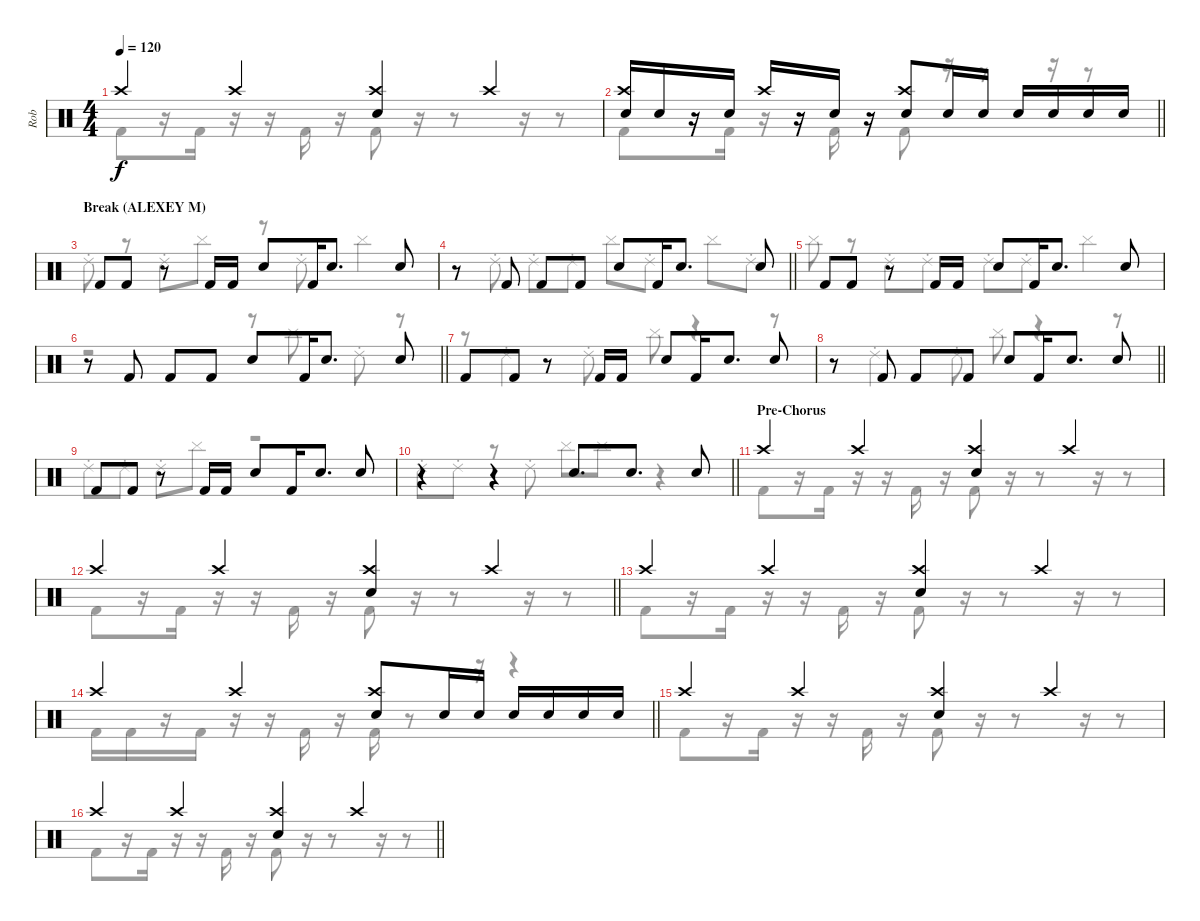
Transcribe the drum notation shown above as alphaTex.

\track ("Rob" "Rob") {instrument percussion}
\staff {score}
\articulation defaults
\voice
\ts (4 4)
\tempo 120
\clef neutral
\ks c "Crash high (hit)".4{dy f} "Crash high (hit)".4
("Crash high (hit)" "Snare (hit) 2").4 "Crash high (hit)".4 |
\barLineRight lightlight
("Crash high (hit)" "Snare (hit) 2").16 "Snare (hit) 2".16 r.16 "Snare (hit) 2".16 "Crash high (hit)".16 r.16 "Snare (hit) 2".16 r.16 ("Crash high (hit)" "Snare (hit) 2").8 "Snare (hit) 2".16 "Snare (hit) 2".16 "Snare (hit) 2".16 "Snare (hit) 2".16 "Snare (hit) 2".16 "Snare (hit) 2".16 |
\section ("" "Break (ALEXEY M)")
"Kick (hit) 2".8 "Kick (hit) 2".8 r.8 "Kick (hit) 2".16 "Kick (hit) 2".16 "Snare (hit) 2".8 "Kick (hit) 2".16 "Snare (hit) 2".8{d} "Snare (hit) 2".8 |
\barLineRight lightlight
r.8 "Kick (hit) 2".8 "Kick (hit) 2".8 "Kick (hit) 2".8 "Snare (hit) 2".8 "Kick (hit) 2".16 "Snare (hit) 2".8{d} "Snare (hit) 2".8 |
"Kick (hit) 2".8 "Kick (hit) 2".8 r.8 "Kick (hit) 2".16 "Kick (hit) 2".16 "Snare (hit) 2".8 "Kick (hit) 2".16 "Snare (hit) 2".8{d} "Snare (hit) 2".8 |
\barLineRight lightlight
r.8 "Kick (hit) 2".8 "Kick (hit) 2".8 "Kick (hit) 2".8 "Snare (hit) 2".8 "Kick (hit) 2".16 "Snare (hit) 2".8{d} "Snare (hit) 2".8 |
"Kick (hit) 2".8 "Kick (hit) 2".8 r.8 "Kick (hit) 2".16 "Kick (hit) 2".16 "Snare (hit) 2".8 "Kick (hit) 2".16 "Snare (hit) 2".8{d} "Snare (hit) 2".8 |
\barLineRight lightlight
r.8 "Kick (hit) 2".8 "Kick (hit) 2".8 "Kick (hit) 2".8 "Snare (hit) 2".8 "Kick (hit) 2".16 "Snare (hit) 2".8{d} "Snare (hit) 2".8 |
"Kick (hit) 2".8 "Kick (hit) 2".8 r.8 "Kick (hit) 2".16 "Kick (hit) 2".16 "Snare (hit) 2".8 "Kick (hit) 2".16 "Snare (hit) 2".8{d} "Snare (hit) 2".8 |
\barLineRight lightlight
r.4 r.4 "Snare (hit) 2".8{d} "Snare (hit) 2".8{d} "Snare (hit) 2".8 |
\section ("" "Pre-Chorus")
"Crash high (hit)".4 "Crash high (hit)".4 ("Crash high (hit)" "Snare (hit) 2").4 "Crash high (hit)".4 |
\barLineRight lightlight "Crash high (hit)".4 "Crash high (hit)".4
("Crash high (hit)" "Snare (hit) 2").4 "Crash high (hit)".4 |
"Crash high (hit)".4 "Crash high (hit)".4 ("Crash high (hit)" "Snare (hit) 2").4 "Crash high (hit)".4 |
\barLineRight lightlight "Crash high (hit)".4 "Crash high (hit)".4
("Crash high (hit)" "Snare (hit) 2").8 "Snare (hit) 2".16 "Snare (hit) 2".16 "Snare (hit) 2".16 "Snare (hit) 2".16 "Snare (hit) 2".16 "Snare (hit) 2".16 |
"Crash high (hit)".4 "Crash high (hit)".4 ("Crash high (hit)" "Snare (hit) 2").4 "Crash high (hit)".4 |
\barLineRight lightlight "Crash high (hit)".4 "Crash high (hit)".4
("Crash high (hit)" "Snare (hit) 2").4 "Crash high (hit)".4
\voice
\clef neutral
\ottava regular
\simile none
\ks c "Kick (hit) 2".8{dy f}
r.16 "Kick (hit) 2".16 r.16 r.16 "Kick (hit) 2".16 r.16 "Kick (hit) 2".8 r.16 r.8 r.16 r.8 |
\barLineRight lightlight "Kick (hit) 2".8
r.16 "Kick (hit) 2".16 r.16 r.16 "Kick (hit) 2".16 r.16 "Kick (hit) 2".8 r.16 r.8 r.16 r.8 |
"Ride (choke) 2".8 r.8 "Ride (choke) 2".8 "Cymbal (hit)".8 r.8 "Ride (choke) 2".8 "Cymbal (hit)".4 |
\barLineRight lightlight
r.8 "Ride (choke) 2".8 "Ride (choke) 2".8 "Ride (choke) 2".8 "Cymbal (hit)".8 "Ride (choke) 2".8 "Cymbal (hit)".8 "Ride (choke) 2".8 |
"Cymbal (hit)".8 r.8 "Ride (choke) 2".8 "Ride (choke) 2".8 "Ride (choke) 2".8 "Ride (choke) 2".8 "Cymbal (hit)".4 |
\barLineRight lightlight
r.2 r.8 "Cymbal (hit)".8 "Ride (choke) 2".8 r.8 |
r.8 "Ride (choke) 2".4 "Ride (choke) 2".8 "Cymbal (hit)".8 r.4 r.8 |
\barLineRight lightlight
r.8 "Ride (choke) 2".4 "Ride (choke) 2".8 "Cymbal (hit)".8 r.4 r.8 |
"Ride (choke) 2".8 "Ride (choke) 2".8 "Ride (choke) 2".8 "Cymbal (hit)".8 r.2 |
\barLineRight lightlight "Ride (choke) 2".8 "Ride (choke) 2".8
r.8 "Ride (choke) 2".8 "Cymbal (hit)".8 "Cymbal (hit)".8 r.4 |
"Kick (hit) 2".8 r.16 "Kick (hit) 2".16 r.16 r.16 "Kick (hit) 2".16 r.16 "Kick (hit) 2".8 r.16 r.8 r.16 r.8 |
\barLineRight lightlight "Kick (hit) 2".8
r.16 "Kick (hit) 2".16 r.16 r.16 "Kick (hit) 2".16 r.16 "Kick (hit) 2".8 r.16 r.8 r.16 r.8 |
"Kick (hit) 2".8 r.16 "Kick (hit) 2".16 r.16 r.16 "Kick (hit) 2".16 r.16 "Kick (hit) 2".8 r.16 r.8 r.16 r.8 |
\barLineRight lightlight "Kick (hit) 2".16 "Kick (hit) 2".16
r.16 "Kick (hit) 2".16 r.16 r.16 "Kick (hit) 2".16 r.16 "Kick (hit) 2".16 r.8 r.16 r.4 |
"Kick (hit) 2".8 r.16 "Kick (hit) 2".16 r.16 r.16 "Kick (hit) 2".16 r.16 "Kick (hit) 2".8 r.16 r.8 r.16 r.8 |
\barLineRight lightlight "Kick (hit) 2".8
r.16 "Kick (hit) 2".16 r.16 r.16 "Kick (hit) 2".16 r.16 "Kick (hit) 2".8 r.16 r.8 r.16 r.8
